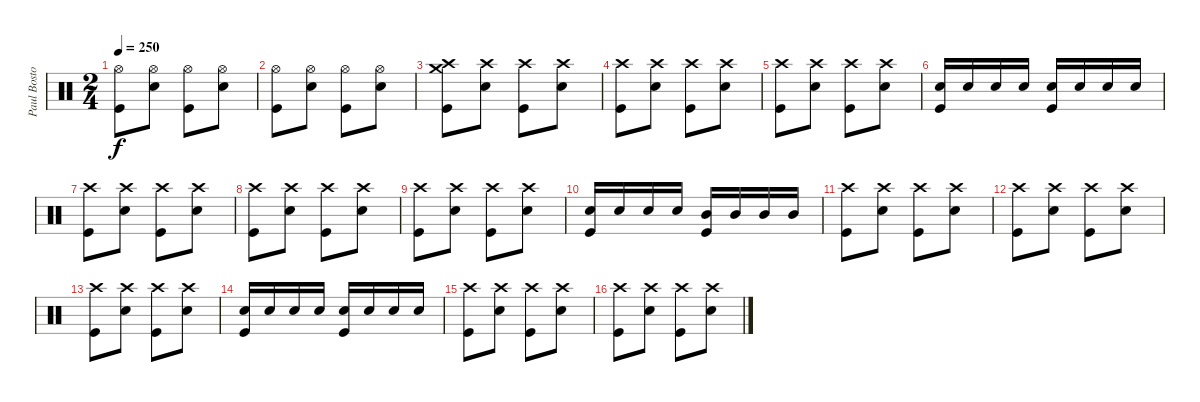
\track ("Paul Bostoph" "Paul Bosto") {instrument percussion}
\staff {score}
\articulation defaults
\ts (2 4)
\tempo 250
\clef neutral
\ks c
("Hi-Hat (open)" "Kick (hit)").8{dy f} ("Hi-Hat (open)" "Snare (hit) 2").8 ("Hi-Hat (open)" "Kick (hit)").8 ("Hi-Hat (open)" "Snare (hit) 2").8 |
("Hi-Hat (open)" "Kick (hit)").8 ("Hi-Hat (open)" "Snare (hit) 2").8 ("Hi-Hat (open)" "Kick (hit)").8 ("Hi-Hat (open)" "Snare (hit) 2").8 |
("Crash medium (hit)" "Crash high (hit)" "Kick (hit)").8 ("Crash high (hit)" "Snare (hit) 2").8 ("Crash high (hit)" "Kick (hit)").8 ("Crash high (hit)" "Snare (hit) 2").8 |
("Crash high (hit)" "Kick (hit)").8 ("Crash high (hit)" "Snare (hit) 2").8 ("Crash high (hit)" "Kick (hit)").8 ("Crash high (hit)" "Snare (hit) 2").8 |
("Crash high (hit)" "Kick (hit)").8 ("Crash high (hit)" "Snare (hit) 2").8 ("Crash high (hit)" "Kick (hit)").8 ("Crash high (hit)" "Snare (hit) 2").8 |
("Snare (hit) 2" "Kick (hit)").16 "Snare (hit) 2".16 "Snare (hit) 2".16 "Snare (hit) 2".16 ("Snare (hit) 2" "Kick (hit)").16 "Snare (hit) 2".16 "Snare (hit) 2".16 "Snare (hit) 2".16 |
("Crash high (hit)" "Kick (hit)").8 ("Crash high (hit)" "Snare (hit) 2").8 ("Crash high (hit)" "Kick (hit)").8 ("Crash high (hit)" "Snare (hit) 2").8 |
("Crash high (hit)" "Kick (hit)").8 ("Crash high (hit)" "Snare (hit) 2").8 ("Crash high (hit)" "Kick (hit)").8 ("Crash high (hit)" "Snare (hit) 2").8 |
("Crash high (hit)" "Kick (hit)").8 ("Crash high (hit)" "Snare (hit) 2").8 ("Crash high (hit)" "Kick (hit)").8 ("Crash high (hit)" "Snare (hit) 2").8 |
("Snare (hit) 2" "Kick (hit)").16 "Snare (hit) 2".16 "Snare (hit) 2".16 "Snare (hit) 2".16 ("Mid Tom (hit)" "Kick (hit)").16 "Mid Tom (hit)".16 "Mid Tom (hit)".16 "Mid Tom (hit)".16 |
("Crash high (hit)" "Kick (hit)").8 ("Crash high (hit)" "Snare (hit) 2").8 ("Crash high (hit)" "Kick (hit)").8 ("Crash high (hit)" "Snare (hit) 2").8 |
("Crash high (hit)" "Kick (hit)").8 ("Crash high (hit)" "Snare (hit) 2").8 ("Crash high (hit)" "Kick (hit)").8 ("Crash high (hit)" "Snare (hit) 2").8 |
("Crash high (hit)" "Kick (hit)").8 ("Crash high (hit)" "Snare (hit) 2").8 ("Crash high (hit)" "Kick (hit)").8 ("Crash high (hit)" "Snare (hit) 2").8 |
("Snare (hit) 2" "Kick (hit)").16 "Snare (hit) 2".16 "Snare (hit) 2".16 "Snare (hit) 2".16 ("Snare (hit) 2" "Kick (hit)").16 "Snare (hit) 2".16 "Snare (hit) 2".16 "Snare (hit) 2".16 |
("Crash high (hit)" "Kick (hit)").8 ("Crash high (hit)" "Snare (hit) 2").8 ("Crash high (hit)" "Kick (hit)").8 ("Crash high (hit)" "Snare (hit) 2").8 |
("Crash high (hit)" "Kick (hit)").8 ("Crash high (hit)" "Snare (hit) 2").8 ("Crash high (hit)" "Kick (hit)").8 ("Crash high (hit)" "Snare (hit) 2").8
